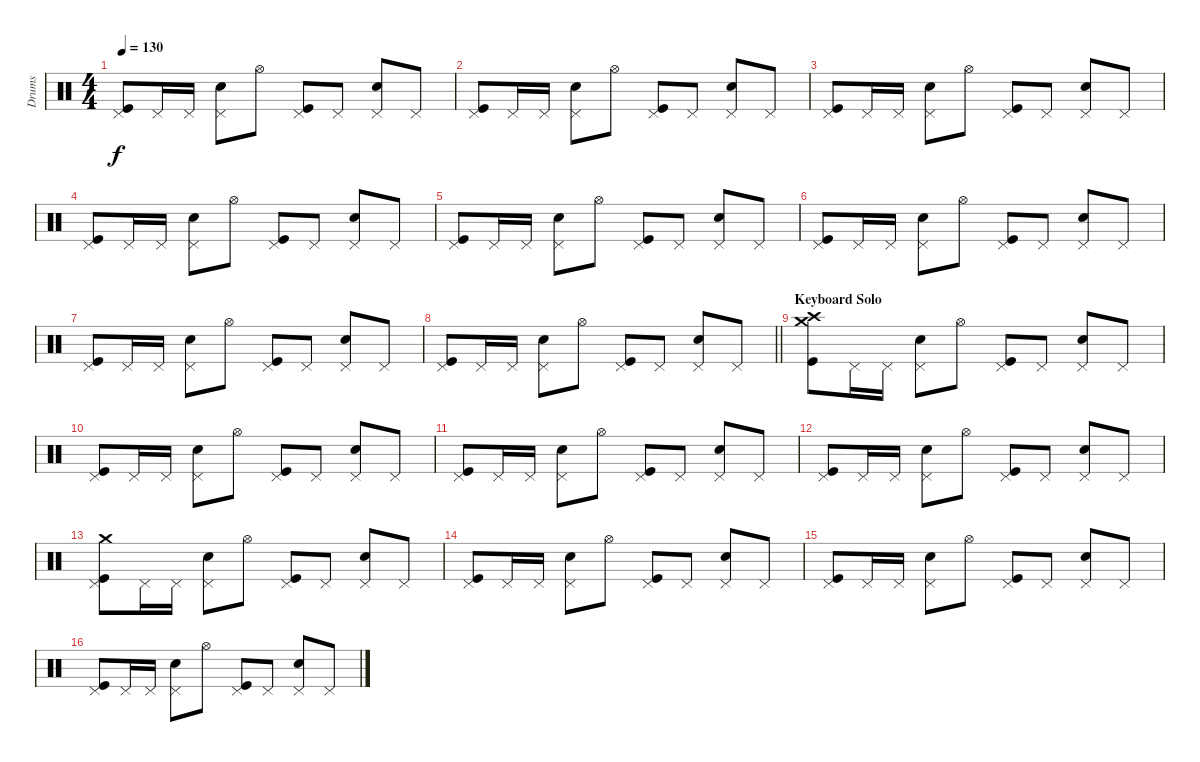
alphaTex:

\track ("Drums" "Drums") {instrument percussion}
\staff {score}
\articulation defaults
\ts (4 4)
\tempo 130
\clef neutral
\ks c
("Pedal Hi-Hat (hit)" "Kick (hit)").8{dy f} "Pedal Hi-Hat (hit)".16 "Pedal Hi-Hat (hit)".16 ("Pedal Hi-Hat (hit)" "Snare (hit) 2").8 "Hi-Hat (open)".8 ("Pedal Hi-Hat (hit)" "Kick (hit)").8 "Pedal Hi-Hat (hit)".8 ("Pedal Hi-Hat (hit)" "Snare (hit) 2").8 "Pedal Hi-Hat (hit)".8 |
("Pedal Hi-Hat (hit)" "Kick (hit)").8 "Pedal Hi-Hat (hit)".16 "Pedal Hi-Hat (hit)".16 ("Pedal Hi-Hat (hit)" "Snare (hit) 2").8 "Hi-Hat (open)".8 ("Pedal Hi-Hat (hit)" "Kick (hit)").8 "Pedal Hi-Hat (hit)".8 ("Pedal Hi-Hat (hit)" "Snare (hit) 2").8 "Pedal Hi-Hat (hit)".8 |
("Pedal Hi-Hat (hit)" "Kick (hit)").8 "Pedal Hi-Hat (hit)".16 "Pedal Hi-Hat (hit)".16 ("Pedal Hi-Hat (hit)" "Snare (hit) 2").8 "Hi-Hat (open)".8 ("Pedal Hi-Hat (hit)" "Kick (hit)").8 "Pedal Hi-Hat (hit)".8 ("Pedal Hi-Hat (hit)" "Snare (hit) 2").8 "Pedal Hi-Hat (hit)".8 |
("Pedal Hi-Hat (hit)" "Kick (hit)").8 "Pedal Hi-Hat (hit)".16 "Pedal Hi-Hat (hit)".16 ("Pedal Hi-Hat (hit)" "Snare (hit) 2").8 "Hi-Hat (open)".8 ("Pedal Hi-Hat (hit)" "Kick (hit)").8 "Pedal Hi-Hat (hit)".8 ("Pedal Hi-Hat (hit)" "Snare (hit) 2").8 "Pedal Hi-Hat (hit)".8 |
("Pedal Hi-Hat (hit)" "Kick (hit)").8 "Pedal Hi-Hat (hit)".16 "Pedal Hi-Hat (hit)".16 ("Pedal Hi-Hat (hit)" "Snare (hit) 2").8 "Hi-Hat (open)".8 ("Pedal Hi-Hat (hit)" "Kick (hit)").8 "Pedal Hi-Hat (hit)".8 ("Pedal Hi-Hat (hit)" "Snare (hit) 2").8 "Pedal Hi-Hat (hit)".8 |
("Pedal Hi-Hat (hit)" "Kick (hit)").8 "Pedal Hi-Hat (hit)".16 "Pedal Hi-Hat (hit)".16 ("Pedal Hi-Hat (hit)" "Snare (hit) 2").8 "Hi-Hat (open)".8 ("Pedal Hi-Hat (hit)" "Kick (hit)").8 "Pedal Hi-Hat (hit)".8 ("Pedal Hi-Hat (hit)" "Snare (hit) 2").8 "Pedal Hi-Hat (hit)".8 |
("Pedal Hi-Hat (hit)" "Kick (hit)").8 "Pedal Hi-Hat (hit)".16 "Pedal Hi-Hat (hit)".16 ("Pedal Hi-Hat (hit)" "Snare (hit) 2").8 "Hi-Hat (open)".8 ("Pedal Hi-Hat (hit)" "Kick (hit)").8 "Pedal Hi-Hat (hit)".8 ("Pedal Hi-Hat (hit)" "Snare (hit) 2").8 "Pedal Hi-Hat (hit)".8 |
\barLineRight lightlight
("Pedal Hi-Hat (hit)" "Kick (hit)").8 "Pedal Hi-Hat (hit)".16 "Pedal Hi-Hat (hit)".16 ("Pedal Hi-Hat (hit)" "Snare (hit) 2").8 "Hi-Hat (open)".8 ("Pedal Hi-Hat (hit)" "Kick (hit)").8 "Pedal Hi-Hat (hit)".8 ("Pedal Hi-Hat (hit)" "Snare (hit) 2").8 "Pedal Hi-Hat (hit)".8 |
\section ("" "Keyboard Solo")
("Kick (hit)" "Crash medium (hit)" "Crash high (hit)").8 "Pedal Hi-Hat (hit)".16 "Pedal Hi-Hat (hit)".16 ("Pedal Hi-Hat (hit)" "Snare (hit) 2").8 "Hi-Hat (open)".8 ("Pedal Hi-Hat (hit)" "Kick (hit)").8 "Pedal Hi-Hat (hit)".8 ("Pedal Hi-Hat (hit)" "Snare (hit) 2").8 "Pedal Hi-Hat (hit)".8 |
("Pedal Hi-Hat (hit)" "Kick (hit)").8 "Pedal Hi-Hat (hit)".16 "Pedal Hi-Hat (hit)".16 ("Pedal Hi-Hat (hit)" "Snare (hit) 2").8 "Hi-Hat (open)".8 ("Pedal Hi-Hat (hit)" "Kick (hit)").8 "Pedal Hi-Hat (hit)".8 ("Pedal Hi-Hat (hit)" "Snare (hit) 2").8 "Pedal Hi-Hat (hit)".8 |
("Pedal Hi-Hat (hit)" "Kick (hit)").8 "Pedal Hi-Hat (hit)".16 "Pedal Hi-Hat (hit)".16 ("Pedal Hi-Hat (hit)" "Snare (hit) 2").8 "Hi-Hat (open)".8 ("Pedal Hi-Hat (hit)" "Kick (hit)").8 "Pedal Hi-Hat (hit)".8 ("Pedal Hi-Hat (hit)" "Snare (hit) 2").8 "Pedal Hi-Hat (hit)".8 |
("Pedal Hi-Hat (hit)" "Kick (hit)").8 "Pedal Hi-Hat (hit)".16 "Pedal Hi-Hat (hit)".16 ("Pedal Hi-Hat (hit)" "Snare (hit) 2").8 "Hi-Hat (open)".8 ("Pedal Hi-Hat (hit)" "Kick (hit)").8 "Pedal Hi-Hat (hit)".8 ("Pedal Hi-Hat (hit)" "Snare (hit) 2").8 "Pedal Hi-Hat (hit)".8 |
("Pedal Hi-Hat (hit)" "Kick (hit)" "Crash medium (hit)").8 "Pedal Hi-Hat (hit)".16 "Pedal Hi-Hat (hit)".16 ("Pedal Hi-Hat (hit)" "Snare (hit) 2").8 "Hi-Hat (open)".8 ("Pedal Hi-Hat (hit)" "Kick (hit)").8 "Pedal Hi-Hat (hit)".8 ("Pedal Hi-Hat (hit)" "Snare (hit) 2").8 "Pedal Hi-Hat (hit)".8 |
("Pedal Hi-Hat (hit)" "Kick (hit)").8 "Pedal Hi-Hat (hit)".16 "Pedal Hi-Hat (hit)".16 ("Pedal Hi-Hat (hit)" "Snare (hit) 2").8 "Hi-Hat (open)".8 ("Pedal Hi-Hat (hit)" "Kick (hit)").8 "Pedal Hi-Hat (hit)".8 ("Pedal Hi-Hat (hit)" "Snare (hit) 2").8 "Pedal Hi-Hat (hit)".8 |
("Pedal Hi-Hat (hit)" "Kick (hit)").8 "Pedal Hi-Hat (hit)".16 "Pedal Hi-Hat (hit)".16 ("Pedal Hi-Hat (hit)" "Snare (hit) 2").8 "Hi-Hat (open)".8 ("Pedal Hi-Hat (hit)" "Kick (hit)").8 "Pedal Hi-Hat (hit)".8 ("Pedal Hi-Hat (hit)" "Snare (hit) 2").8 "Pedal Hi-Hat (hit)".8 |
("Pedal Hi-Hat (hit)" "Kick (hit)").8 "Pedal Hi-Hat (hit)".16 "Pedal Hi-Hat (hit)".16 ("Pedal Hi-Hat (hit)" "Snare (hit) 2").8 "Hi-Hat (open)".8 ("Pedal Hi-Hat (hit)" "Kick (hit)").8 "Pedal Hi-Hat (hit)".8 ("Pedal Hi-Hat (hit)" "Snare (hit) 2").8 "Pedal Hi-Hat (hit)".8
